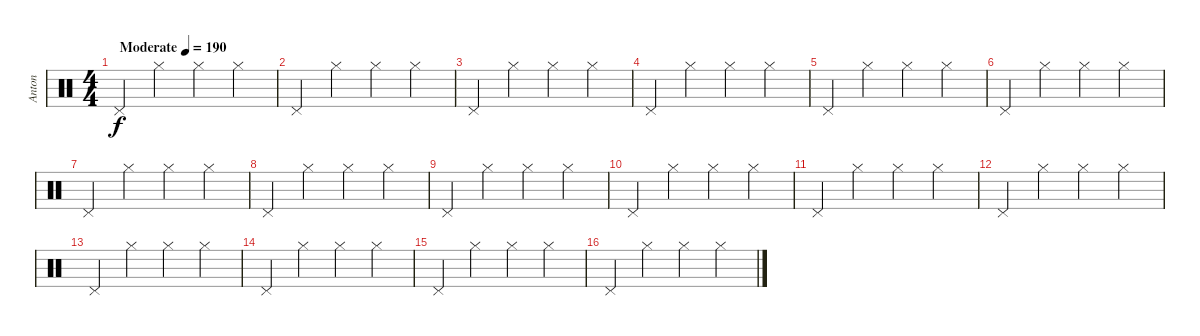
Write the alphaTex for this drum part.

\track ("Anton" "Anton") {instrument percussion}
\staff {score}
\articulation defaults
\ts (4 4)
\tempo (190 "Moderate")
\clef neutral
\ks c "Pedal Hi-Hat (hit)".4{dy f} "Hi-Hat (closed)".4 "Hi-Hat (closed)".4 "Hi-Hat (closed)".4
|
"Pedal Hi-Hat (hit)".4 "Hi-Hat (closed)".4 "Hi-Hat (closed)".4 "Hi-Hat (closed)".4 |
"Pedal Hi-Hat (hit)".4 "Hi-Hat (closed)".4 "Hi-Hat (closed)".4 "Hi-Hat (closed)".4 |
"Pedal Hi-Hat (hit)".4 "Hi-Hat (closed)".4 "Hi-Hat (closed)".4 "Hi-Hat (closed)".4 |
"Pedal Hi-Hat (hit)".4 "Hi-Hat (closed)".4 "Hi-Hat (closed)".4 "Hi-Hat (closed)".4 |
"Pedal Hi-Hat (hit)".4 "Hi-Hat (closed)".4 "Hi-Hat (closed)".4 "Hi-Hat (closed)".4 |
"Pedal Hi-Hat (hit)".4 "Hi-Hat (closed)".4 "Hi-Hat (closed)".4 "Hi-Hat (closed)".4 |
"Pedal Hi-Hat (hit)".4 "Hi-Hat (closed)".4 "Hi-Hat (closed)".4 "Hi-Hat (closed)".4 |
"Pedal Hi-Hat (hit)".4 "Hi-Hat (closed)".4 "Hi-Hat (closed)".4 "Hi-Hat (closed)".4 |
"Pedal Hi-Hat (hit)".4 "Hi-Hat (closed)".4 "Hi-Hat (closed)".4 "Hi-Hat (closed)".4 |
"Pedal Hi-Hat (hit)".4 "Hi-Hat (closed)".4 "Hi-Hat (closed)".4 "Hi-Hat (closed)".4 |
"Pedal Hi-Hat (hit)".4 "Hi-Hat (closed)".4 "Hi-Hat (closed)".4 "Hi-Hat (closed)".4 |
"Pedal Hi-Hat (hit)".4 "Hi-Hat (closed)".4 "Hi-Hat (closed)".4 "Hi-Hat (closed)".4 |
"Pedal Hi-Hat (hit)".4 "Hi-Hat (closed)".4 "Hi-Hat (closed)".4 "Hi-Hat (closed)".4 |
"Pedal Hi-Hat (hit)".4 "Hi-Hat (closed)".4 "Hi-Hat (closed)".4 "Hi-Hat (closed)".4 |
"Pedal Hi-Hat (hit)".4 "Hi-Hat (closed)".4 "Hi-Hat (closed)".4 "Hi-Hat (closed)".4
